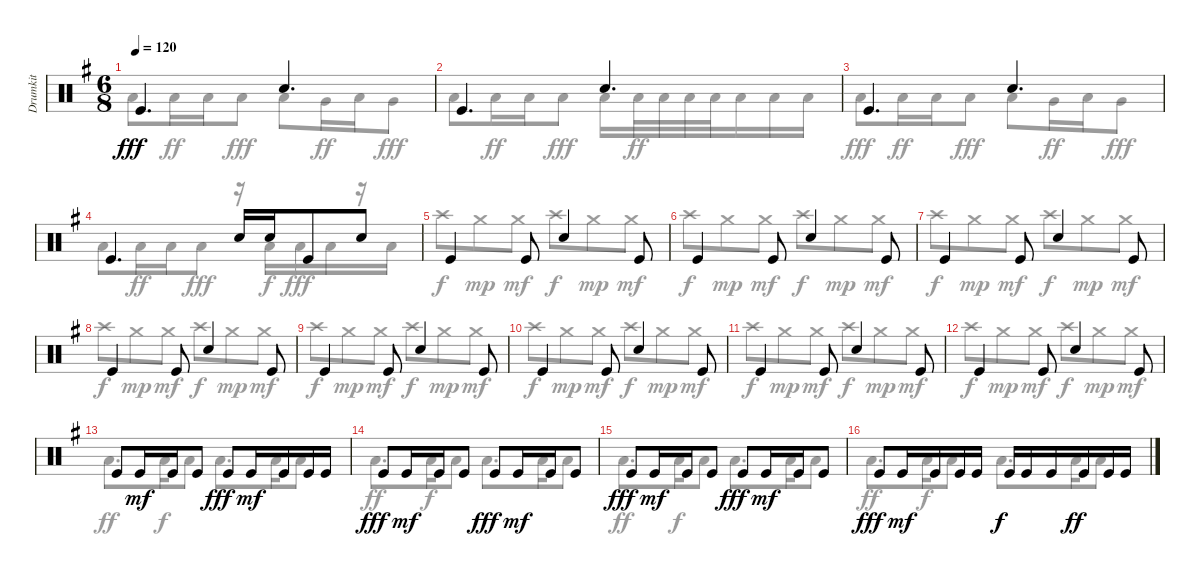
\track ("Drumkit" "Drumkit") {instrument percussion}
\staff {score}
\articulation defaults
\voice
\ts (6 8)
\tempo 120
\clef neutral
\ks eminor "Kick (hit)".4{d dy fff} "Snare (hit) 2".4{d}
|
"Kick (hit)".4{d} "Snare (hit) 2".4{d} |
"Kick (hit)".4{d} "Snare (hit) 2".4{d} |
"Kick (hit)".4{d} "Snare (hit) 2".16 "Snare (hit) 2".16 "Kick (hit)".8 "Snare (hit) 2".8 |
"Kick (hit)".4 "Kick (hit)".8 "Snare (hit) 2".4 "Kick (hit)".8 |
"Kick (hit)".4 "Kick (hit)".8 "Snare (hit) 2".4 "Kick (hit)".8 |
"Kick (hit)".4 "Kick (hit)".8 "Snare (hit) 2".4 "Kick (hit)".8 |
"Kick (hit)".4 "Kick (hit)".8 "Snare (hit) 2".4 "Kick (hit)".8 |
"Kick (hit)".4 "Kick (hit)".8 "Snare (hit) 2".4 "Kick (hit)".8 |
"Kick (hit)".4 "Kick (hit)".8 "Snare (hit) 2".4 "Kick (hit)".8 |
"Kick (hit)".4 "Kick (hit)".8 "Snare (hit) 2".4 "Kick (hit)".8 |
"Kick (hit)".4 "Kick (hit)".8 "Snare (hit) 2".4 "Kick (hit)".8 |
"Kick (hit)".8 "Kick (hit)".16{dy mf} "Kick (hit)".16 "Kick (hit)".8 "Kick (hit)".8{dy fff} "Kick (hit)".16{dy mf} "Kick (hit)".16 "Kick (hit)".16 "Kick (hit)".16 |
"Kick (hit)".8{dy fff} "Kick (hit)".16{dy mf} "Kick (hit)".16 "Kick (hit)".8 "Kick (hit)".8{dy fff} "Kick (hit)".16{dy mf} "Kick (hit)".16 "Kick (hit)".8 |
"Kick (hit)".8{dy fff} "Kick (hit)".16{dy mf} "Kick (hit)".16 "Kick (hit)".8 "Kick (hit)".8{dy fff} "Kick (hit)".16{dy mf} "Kick (hit)".16 "Kick (hit)".8 |
"Kick (hit)".8{dy fff} "Kick (hit)".16{dy mf} "Kick (hit)".16 "Kick (hit)".16 "Kick (hit)".16 "Kick (hit)".16{dy f} "Kick (hit)".16 "Kick (hit)".16 "Kick (hit)".16{dy ff} "Kick (hit)".16 "Kick (hit)".16
\voice
\clef neutral
\ottava regular
\simile none
\ks eminor "Low Floor Tom (hit)".8{dy fff} "Low Floor Tom (hit)".16{dy ff} "Low Floor Tom (hit)".16 "Low Floor Tom (hit)".8{dy fff} "Low Floor Tom (hit)".8 "Very Low Tom (hit)".16{dy ff} "Low Tom (hit)".16 "Very Low Tom (hit)".8{dy fff}
|
"Low Floor Tom (hit)".8 "Low Floor Tom (hit)".16{dy ff} "Low Floor Tom (hit)".16 "Low Floor Tom (hit)".8{dy fff} "Low Floor Tom (hit)".16 "Low Floor Tom (hit)".32{dy ff} "Low Floor Tom (hit)".32 "Low Floor Tom (hit)".32 "Low Floor Tom (hit)".32 "Low Floor Tom (hit)".16 "Low Floor Tom (hit)".16 "Low Floor Tom (hit)".16 |
"Low Floor Tom (hit)".8{dy fff} "Low Floor Tom (hit)".16{dy ff} "Low Floor Tom (hit)".16 "Low Floor Tom (hit)".8{dy fff} "Low Floor Tom (hit)".8 "Very Low Tom (hit)".16{dy ff} "Low Tom (hit)".16 "Very Low Tom (hit)".8{dy fff} |
"Low Floor Tom (hit)".8 "Low Floor Tom (hit)".16{dy ff} "Low Floor Tom (hit)".16 "Low Floor Tom (hit)".8{dy fff} r.16 "Low Floor Tom (hit)".16{dy f} "Low Floor Tom (hit)".16{dy fff} "Low Floor Tom (hit)".16 r.16 "Low Floor Tom (hit)".16 |
"Crash high (hit)".8{dy f} "Crash medium (hit)".8{dy mp} "Crash medium (hit)".8{dy mf} "Crash high (hit)".8{dy f} "Crash medium (hit)".8{dy mp} "Crash medium (hit)".8{dy mf} |
"Crash high (hit)".8{dy f} "Crash medium (hit)".8{dy mp} "Crash medium (hit)".8{dy mf} "Crash high (hit)".8{dy f} "Crash medium (hit)".8{dy mp} "Crash medium (hit)".8{dy mf} |
"Crash high (hit)".8{dy f} "Crash medium (hit)".8{dy mp} "Crash medium (hit)".8{dy mf} "Crash high (hit)".8{dy f} "Crash medium (hit)".8{dy mp} "Crash medium (hit)".8{dy mf} |
"Crash high (hit)".8{dy f} "Crash medium (hit)".8{dy mp} "Crash medium (hit)".8{dy mf} "Crash high (hit)".8{dy f} "Crash medium (hit)".8{dy mp} "Crash medium (hit)".8{dy mf} |
"Crash high (hit)".8{dy f} "Crash medium (hit)".8{dy mp} "Crash medium (hit)".8{dy mf} "Crash high (hit)".8{dy f} "Crash medium (hit)".8{dy mp} "Crash medium (hit)".8{dy mf} |
"Crash high (hit)".8{dy f} "Crash medium (hit)".8{dy mp} "Crash medium (hit)".8{dy mf} "Crash high (hit)".8{dy f} "Crash medium (hit)".8{dy mp} "Crash medium (hit)".8{dy mf} |
"Crash high (hit)".8{dy f} "Crash medium (hit)".8{dy mp} "Crash medium (hit)".8{dy mf} "Crash high (hit)".8{dy f} "Crash medium (hit)".8{dy mp} "Crash medium (hit)".8{dy mf} |
"Crash high (hit)".8{dy f} "Crash medium (hit)".8{dy mp} "Crash medium (hit)".8{dy mf} "Crash high (hit)".8{dy f} "Crash medium (hit)".8{dy mp} "Crash medium (hit)".8{dy mf} |
"Low Tom (hit)".8{d dy ff} "Low Tom (hit)".16{dy f} "Low Floor Tom (hit)".8 "Low Tom (hit)".8{d} "Low Tom (hit)".16 "Low Floor Tom (hit)".8 |
"Low Tom (hit)".8{d dy ff} "Low Tom (hit)".16{dy f} "Low Floor Tom (hit)".8 "Low Tom (hit)".8{d} "Low Tom (hit)".16 "Low Floor Tom (hit)".8 |
"Low Tom (hit)".8{d dy ff} "Low Tom (hit)".16{dy f} "Low Floor Tom (hit)".8 "Low Tom (hit)".8{d} "Low Tom (hit)".16 "Low Floor Tom (hit)".8 |
"Low Tom (hit)".8{d dy ff} "Low Tom (hit)".16{dy f} "Low Floor Tom (hit)".8 "Low Tom (hit)".8{d} "Low Tom (hit)".16 "Low Floor Tom (hit)".8
